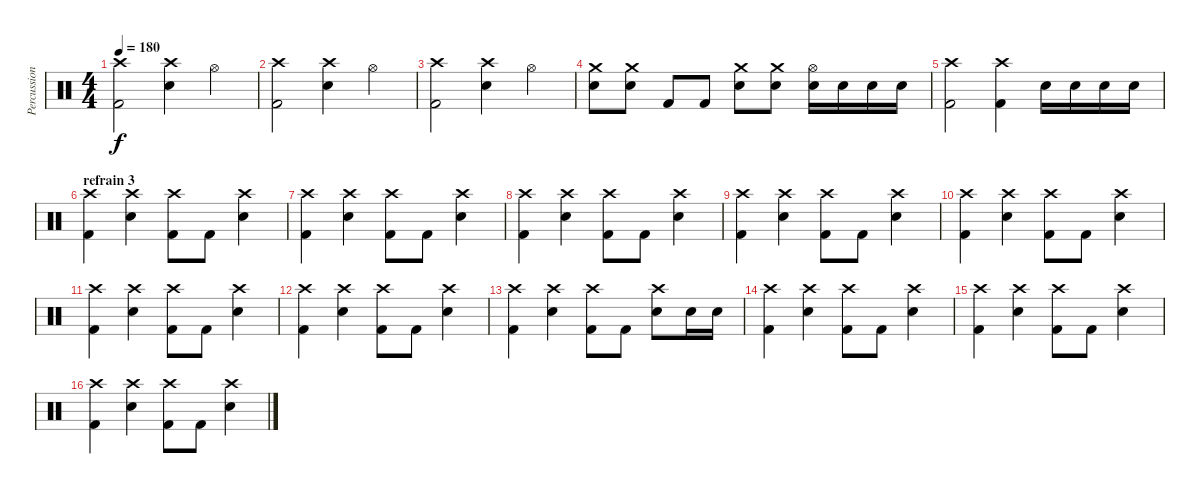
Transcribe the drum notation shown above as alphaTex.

\track ("Percussions" "Percussion") {instrument percussion}
\staff {score}
\articulation defaults
\ts (4 4)
\tempo 180
\clef neutral
\ks c
("Crash high (hit)" "Kick (hit) 2").2{dy f} ("Crash high (hit)" "Snare (hit) 2").4 "Hi-Hat (open)".4 |
("Crash high (hit)" "Kick (hit) 2").2 ("Crash high (hit)" "Snare (hit) 2").4 "Hi-Hat (open)".4 |
("Crash high (hit)" "Kick (hit) 2").2 ("Crash high (hit)" "Snare (hit) 2").4 "Hi-Hat (open)".4 |
("Crash medium (hit)" "Snare (hit) 2").8 ("Crash medium (hit)" "Snare (hit) 2").8 "Kick (hit) 2".8 "Kick (hit) 2".8 ("Crash medium (hit)" "Snare (hit) 2").8 ("Crash medium (hit)" "Snare (hit) 2").8 ("Hi-Hat (open)" "Snare (hit) 2").16 "Snare (hit) 2".16 "Snare (hit) 2".16 "Snare (hit) 2".16 |
("Crash high (hit)" "Kick (hit) 2").2 ("Crash high (hit)" "Kick (hit) 2").4 "Snare (hit) 2".16 "Snare (hit) 2".16 "Snare (hit) 2".16 "Snare (hit) 2".16 |
\section ("" "refrain 3")
("Crash high (hit)" "Kick (hit) 2").4 ("Crash high (hit)" "Snare (hit) 2").4 ("Crash high (hit)" "Kick (hit) 2").8 "Kick (hit) 2".8 ("Crash high (hit)" "Snare (hit) 2").4 |
("Crash high (hit)" "Kick (hit) 2").4 ("Crash high (hit)" "Snare (hit) 2").4 ("Crash high (hit)" "Kick (hit) 2").8 "Kick (hit) 2".8 ("Crash high (hit)" "Snare (hit) 2").4 |
("Crash high (hit)" "Kick (hit) 2").4 ("Crash high (hit)" "Snare (hit) 2").4 ("Crash high (hit)" "Kick (hit) 2").8 "Kick (hit) 2".8 ("Crash high (hit)" "Snare (hit) 2").4 |
("Crash high (hit)" "Kick (hit) 2").4 ("Crash high (hit)" "Snare (hit) 2").4 ("Crash high (hit)" "Kick (hit) 2").8 "Kick (hit) 2".8 ("Crash high (hit)" "Snare (hit) 2").4 |
("Crash high (hit)" "Kick (hit) 2").4 ("Crash high (hit)" "Snare (hit) 2").4 ("Crash high (hit)" "Kick (hit) 2").8 "Kick (hit) 2".8 ("Crash high (hit)" "Snare (hit) 2").4 |
("Crash high (hit)" "Kick (hit) 2").4 ("Crash high (hit)" "Snare (hit) 2").4 ("Crash high (hit)" "Kick (hit) 2").8 "Kick (hit) 2".8 ("Crash high (hit)" "Snare (hit) 2").4 |
("Crash high (hit)" "Kick (hit) 2").4 ("Crash high (hit)" "Snare (hit) 2").4 ("Crash high (hit)" "Kick (hit) 2").8 "Kick (hit) 2".8 ("Crash high (hit)" "Snare (hit) 2").4 |
("Crash high (hit)" "Kick (hit) 2").4 ("Crash high (hit)" "Snare (hit) 2").4 ("Crash high (hit)" "Kick (hit) 2").8 "Kick (hit) 2".8 ("Crash high (hit)" "Snare (hit) 2").8 "Snare (hit) 2".16 "Snare (hit) 2".16 |
("Crash high (hit)" "Kick (hit) 2").4 ("Crash high (hit)" "Snare (hit) 2").4 ("Crash high (hit)" "Kick (hit) 2").8 "Kick (hit) 2".8 ("Crash high (hit)" "Snare (hit) 2").4 |
("Crash high (hit)" "Kick (hit) 2").4 ("Crash high (hit)" "Snare (hit) 2").4 ("Crash high (hit)" "Kick (hit) 2").8 "Kick (hit) 2".8 ("Crash high (hit)" "Snare (hit) 2").4 |
("Crash high (hit)" "Kick (hit) 2").4 ("Crash high (hit)" "Snare (hit) 2").4 ("Crash high (hit)" "Kick (hit) 2").8 "Kick (hit) 2".8 ("Crash high (hit)" "Snare (hit) 2").4
